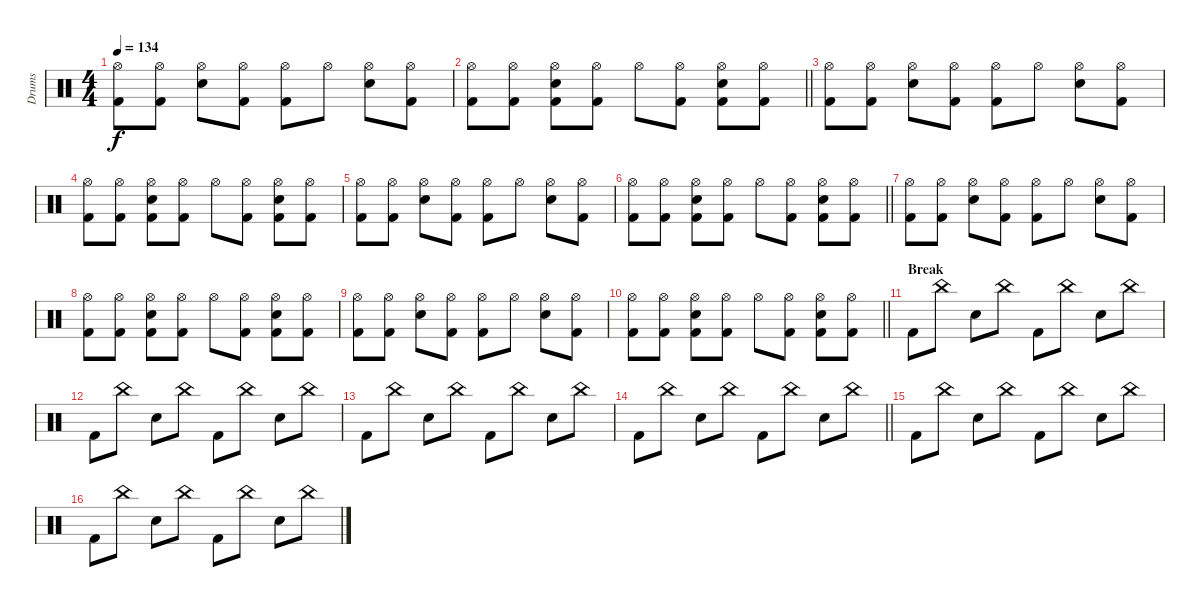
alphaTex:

\track ("Drums" "Drums") {instrument percussion}
\staff {score}
\articulation defaults
\ts (4 4)
\tempo 134
\clef neutral
\ks c
("Hi-Hat (open)" "Kick (hit) 2").8{dy f} ("Hi-Hat (open)" "Kick (hit) 2").8 ("Hi-Hat (open)" "Electric Snare (hit)").8 ("Hi-Hat (open)" "Kick (hit) 2").8 ("Hi-Hat (open)" "Kick (hit) 2").8 "Hi-Hat (open)".8 ("Hi-Hat (open)" "Electric Snare (hit)").8 ("Hi-Hat (open)" "Kick (hit) 2").8 |
\barLineRight lightlight
("Hi-Hat (open)" "Kick (hit) 2").8 ("Hi-Hat (open)" "Kick (hit) 2").8 ("Hi-Hat (open)" "Electric Snare (hit)" "Kick (hit) 2").8 ("Hi-Hat (open)" "Kick (hit) 2").8 "Hi-Hat (open)".8 ("Hi-Hat (open)" "Kick (hit) 2").8 ("Hi-Hat (open)" "Electric Snare (hit)" "Kick (hit) 2").8 ("Hi-Hat (open)" "Kick (hit) 2").8 |
("Hi-Hat (open)" "Kick (hit) 2").8 ("Hi-Hat (open)" "Kick (hit) 2").8 ("Hi-Hat (open)" "Electric Snare (hit)").8 ("Hi-Hat (open)" "Kick (hit) 2").8 ("Hi-Hat (open)" "Kick (hit) 2").8 "Hi-Hat (open)".8 ("Hi-Hat (open)" "Electric Snare (hit)").8 ("Hi-Hat (open)" "Kick (hit) 2").8 |
("Hi-Hat (open)" "Kick (hit) 2").8 ("Hi-Hat (open)" "Kick (hit) 2").8 ("Hi-Hat (open)" "Electric Snare (hit)" "Kick (hit) 2").8 ("Hi-Hat (open)" "Kick (hit) 2").8 "Hi-Hat (open)".8 ("Hi-Hat (open)" "Kick (hit) 2").8 ("Hi-Hat (open)" "Electric Snare (hit)" "Kick (hit) 2").8 ("Hi-Hat (open)" "Kick (hit) 2").8 |
("Hi-Hat (open)" "Kick (hit) 2").8 ("Hi-Hat (open)" "Kick (hit) 2").8 ("Hi-Hat (open)" "Electric Snare (hit)").8 ("Hi-Hat (open)" "Kick (hit) 2").8 ("Hi-Hat (open)" "Kick (hit) 2").8 "Hi-Hat (open)".8 ("Hi-Hat (open)" "Electric Snare (hit)").8 ("Hi-Hat (open)" "Kick (hit) 2").8 |
\barLineRight lightlight
("Hi-Hat (open)" "Kick (hit) 2").8 ("Hi-Hat (open)" "Kick (hit) 2").8 ("Hi-Hat (open)" "Electric Snare (hit)" "Kick (hit) 2").8 ("Hi-Hat (open)" "Kick (hit) 2").8 "Hi-Hat (open)".8 ("Hi-Hat (open)" "Kick (hit) 2").8 ("Hi-Hat (open)" "Electric Snare (hit)" "Kick (hit) 2").8 ("Hi-Hat (open)" "Kick (hit) 2").8 |
("Hi-Hat (open)" "Kick (hit) 2").8 ("Hi-Hat (open)" "Kick (hit) 2").8 ("Hi-Hat (open)" "Electric Snare (hit)").8 ("Hi-Hat (open)" "Kick (hit) 2").8 ("Hi-Hat (open)" "Kick (hit) 2").8 "Hi-Hat (open)".8 ("Hi-Hat (open)" "Electric Snare (hit)").8 ("Hi-Hat (open)" "Kick (hit) 2").8 |
("Hi-Hat (open)" "Kick (hit) 2").8 ("Hi-Hat (open)" "Kick (hit) 2").8 ("Hi-Hat (open)" "Electric Snare (hit)" "Kick (hit) 2").8 ("Hi-Hat (open)" "Kick (hit) 2").8 "Hi-Hat (open)".8 ("Hi-Hat (open)" "Kick (hit) 2").8 ("Hi-Hat (open)" "Electric Snare (hit)" "Kick (hit) 2").8 ("Hi-Hat (open)" "Kick (hit) 2").8 |
("Hi-Hat (open)" "Kick (hit) 2").8 ("Hi-Hat (open)" "Kick (hit) 2").8 ("Hi-Hat (open)" "Electric Snare (hit)").8 ("Hi-Hat (open)" "Kick (hit) 2").8 ("Hi-Hat (open)" "Kick (hit) 2").8 "Hi-Hat (open)".8 ("Hi-Hat (open)" "Electric Snare (hit)").8 ("Hi-Hat (open)" "Kick (hit) 2").8 |
\barLineRight lightlight
("Hi-Hat (open)" "Kick (hit) 2").8 ("Hi-Hat (open)" "Kick (hit) 2").8 ("Hi-Hat (open)" "Electric Snare (hit)" "Kick (hit) 2").8 ("Hi-Hat (open)" "Kick (hit) 2").8 "Hi-Hat (open)".8 ("Hi-Hat (open)" "Kick (hit) 2").8 ("Hi-Hat (open)" "Electric Snare (hit)" "Kick (hit) 2").8 ("Hi-Hat (open)" "Kick (hit) 2").8 |
\section ("" "Break")
"Kick (hit) 2".8 "China (hit)".8 "Electric Snare (hit)".8 "China (hit)".8 "Kick (hit) 2".8 "China (hit)".8 "Electric Snare (hit)".8 "China (hit)".8 |
"Kick (hit) 2".8 "China (hit)".8 "Electric Snare (hit)".8 "China (hit)".8 "Kick (hit) 2".8 "China (hit)".8 "Electric Snare (hit)".8 "China (hit)".8 |
"Kick (hit) 2".8 "China (hit)".8 "Electric Snare (hit)".8 "China (hit)".8 "Kick (hit) 2".8 "China (hit)".8 "Electric Snare (hit)".8 "China (hit)".8 |
\barLineRight lightlight "Kick (hit) 2".8 "China (hit)".8 "Electric Snare (hit)".8 "China (hit)".8 "Kick (hit) 2".8 "China (hit)".8 "Electric Snare (hit)".8 "China (hit)".8
|
"Kick (hit) 2".8 "China (hit)".8 "Electric Snare (hit)".8 "China (hit)".8 "Kick (hit) 2".8 "China (hit)".8 "Electric Snare (hit)".8 "China (hit)".8 |
"Kick (hit) 2".8 "China (hit)".8 "Electric Snare (hit)".8 "China (hit)".8 "Kick (hit) 2".8 "China (hit)".8 "Electric Snare (hit)".8 "China (hit)".8
